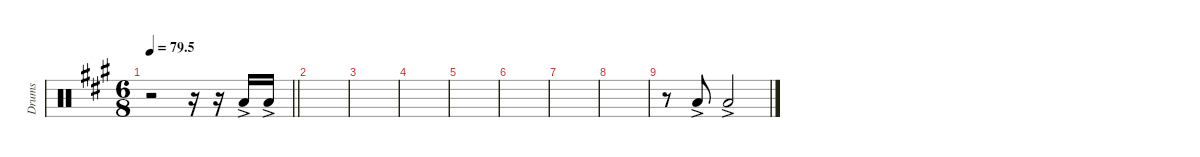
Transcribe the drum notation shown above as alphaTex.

\defaultSystemsLayout 4
\hideDynamics
\bracketExtendMode nobrackets
\otherSystemsTrackNameOrientation horizontal
\track ("Tom 03" "Drums") {instrument percussion}
\staff {score}
\articulation defaults
\ts (6 8)
\tempo
79.5
\accidentals auto
\clef neutral
\ottava regular
\simile none
\scale
0.333333
\barLineRight lightlight
\ks a
r.2{dy f} r.16 r.16 "Low Tom (hit)"{ac acc forcenatural}.16 "Low Tom (hit)"{ac acc forcenatural}.16 |
\scale
0.333333 |
\scale
0.333333 |
\scale
0.333333 |
\scale
0.333333 |
\scale
0.333333 |
\scale
0.333333 |
\scale
0.333333 |
\scale
0.333333 r.8 "Low Tom (hit)"{ac acc forcenatural}.8 "Low Tom (hit)"{ac acc forcenatural}.2 |
\scale
0.333333 |
\scale
0.333333 |
\scale
0.333333
